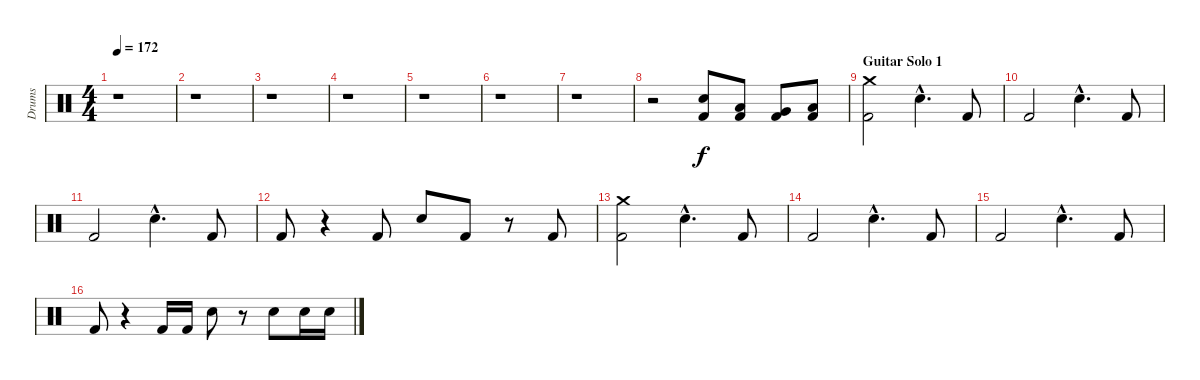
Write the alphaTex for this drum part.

\track ("Drums" "Drums") {instrument percussion}
\staff {score}
\articulation defaults
\ts (4 4)
\tempo 172
\tempo 130
\tempo 172
\clef neutral
\ks c
r.1{dy f} |
r.1 |
r.1 |
r.1 |
r.1 |
r.1 |
r.1 |
r.2 ("Electric Snare (hit)" "Kick (hit) 2").8 ("Low Tom (hit)" "Kick (hit) 2").8 ("Very Low Tom (hit)" "Kick (hit) 2").8 ("Low Floor Tom (hit)" "Kick (hit) 2").8 |
\section ("" "Guitar Solo 1")
("Crash medium (hit)" "Kick (hit) 2").2 "Electric Snare (hit)"{hac}.4{d} "Kick (hit) 2".8 |
"Kick (hit) 2".2 "Electric Snare (hit)"{hac}.4{d} "Kick (hit) 2".8 |
"Kick (hit) 2".2 "Electric Snare (hit)"{hac}.4{d} "Kick (hit) 2".8 |
"Kick (hit) 2".8 r.4 "Kick (hit) 2".8 "Electric Snare (hit)".8 "Kick (hit) 2".8 r.8 "Kick (hit) 2".8 |
("Crash medium (hit)" "Kick (hit) 2").2 "Electric Snare (hit)"{hac}.4{d} "Kick (hit) 2".8 |
"Kick (hit) 2".2 "Electric Snare (hit)"{hac}.4{d} "Kick (hit) 2".8 |
"Kick (hit) 2".2 "Electric Snare (hit)"{hac}.4{d} "Kick (hit) 2".8 |
"Kick (hit) 2".8 r.4 "Kick (hit) 2".16 "Kick (hit) 2".16 "Electric Snare (hit)".8 r.8 "Electric Snare (hit)".8 "Electric Snare (hit)".16 "Electric Snare (hit)".16
